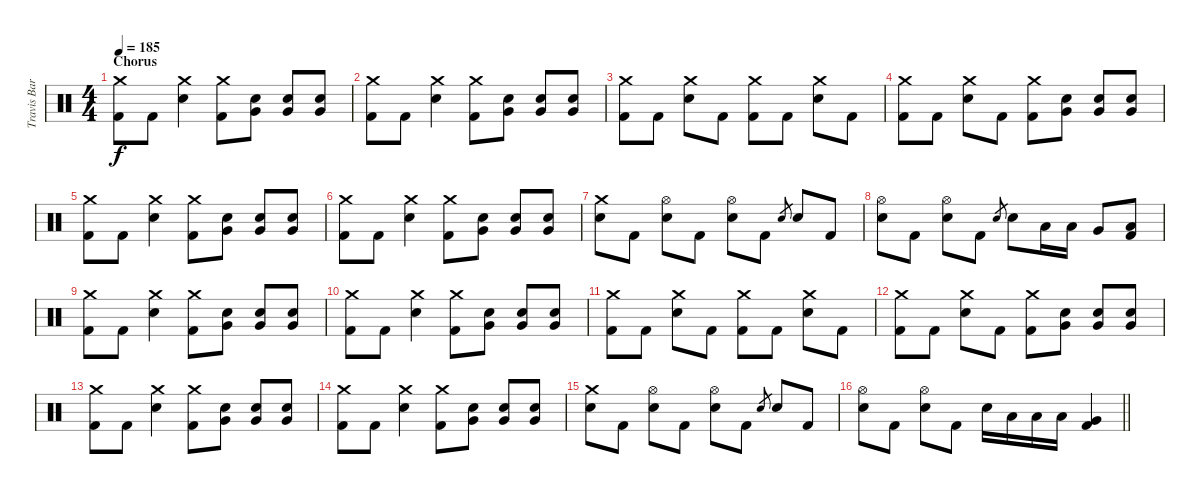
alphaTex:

\track ("Travis Barker - Drums" "Travis Bar") {instrument percussion}
\staff {score}
\articulation defaults
\ts (4 4)
\section ("" "Chorus")
\tempo 185
\clef neutral
\ks c
("Crash medium (hit)" "Kick (hit) 2").8{dy f} "Kick (hit) 2".8 ("Crash medium (hit)" "Electric Snare (hit)").4 ("Crash medium (hit)" "Kick (hit) 2").8 ("Very Low Tom (hit)" "Electric Snare (hit)").8 ("Very Low Tom (hit)" "Electric Snare (hit)").8 ("Very Low Tom (hit)" "Electric Snare (hit)").8 |
("Crash medium (hit)" "Kick (hit) 2").8 "Kick (hit) 2".8 ("Crash medium (hit)" "Electric Snare (hit)").4 ("Crash medium (hit)" "Kick (hit) 2").8 ("Very Low Tom (hit)" "Electric Snare (hit)").8 ("Very Low Tom (hit)" "Electric Snare (hit)").8 ("Very Low Tom (hit)" "Electric Snare (hit)").8 |
("Crash medium (hit)" "Kick (hit) 2").8 "Kick (hit) 2".8 ("Crash medium (hit)" "Electric Snare (hit)").8 "Kick (hit) 2".8 ("Crash medium (hit)" "Kick (hit) 2").8 "Kick (hit) 2".8 ("Crash medium (hit)" "Electric Snare (hit)").8 "Kick (hit) 2".8 |
("Crash medium (hit)" "Kick (hit) 2").8 "Kick (hit) 2".8 ("Crash medium (hit)" "Electric Snare (hit)").8 "Kick (hit) 2".8 ("Crash medium (hit)" "Kick (hit) 2").8 ("Very Low Tom (hit)" "Electric Snare (hit)").8 ("Very Low Tom (hit)" "Electric Snare (hit)").8 ("Very Low Tom (hit)" "Electric Snare (hit)").8 |
("Crash medium (hit)" "Kick (hit) 2").8 "Kick (hit) 2".8 ("Crash medium (hit)" "Electric Snare (hit)").4 ("Crash medium (hit)" "Kick (hit) 2").8 ("Very Low Tom (hit)" "Electric Snare (hit)").8 ("Very Low Tom (hit)" "Electric Snare (hit)").8 ("Very Low Tom (hit)" "Electric Snare (hit)").8 |
("Crash medium (hit)" "Kick (hit) 2").8 "Kick (hit) 2".8 ("Crash medium (hit)" "Electric Snare (hit)").4 ("Crash medium (hit)" "Kick (hit) 2").8 ("Very Low Tom (hit)" "Electric Snare (hit)").8 ("Very Low Tom (hit)" "Electric Snare (hit)").8 ("Very Low Tom (hit)" "Electric Snare (hit)").8 |
("Crash medium (hit)" "Electric Snare (hit)").8 "Kick (hit) 2".8 ("Hi-Hat (open)" "Electric Snare (hit)").8 "Kick (hit) 2".8 ("Hi-Hat (open)" "Electric Snare (hit)").8 "Kick (hit) 2".8 "Electric Snare (hit)".8{gr} "Electric Snare (hit)".8 "Kick (hit) 2".8 |
("Hi-Hat (open)" "Electric Snare (hit)").8 "Kick (hit) 2".8 ("Hi-Hat (open)" "Electric Snare (hit)").8 "Kick (hit) 2".8 "Electric Snare (hit)".8{gr} "Electric Snare (hit)".8 "Low Tom (hit)".16 "Low Tom (hit)".16 "Very Low Tom (hit)".8 ("Low Floor Tom (hit)" "Kick (hit) 2").8 |
("Crash medium (hit)" "Kick (hit) 2").8 "Kick (hit) 2".8 ("Crash medium (hit)" "Electric Snare (hit)").4 ("Crash medium (hit)" "Kick (hit) 2").8 ("Very Low Tom (hit)" "Electric Snare (hit)").8 ("Very Low Tom (hit)" "Electric Snare (hit)").8 ("Very Low Tom (hit)" "Electric Snare (hit)").8 |
("Crash medium (hit)" "Kick (hit) 2").8 "Kick (hit) 2".8 ("Crash medium (hit)" "Electric Snare (hit)").4 ("Crash medium (hit)" "Kick (hit) 2").8 ("Very Low Tom (hit)" "Electric Snare (hit)").8 ("Very Low Tom (hit)" "Electric Snare (hit)").8 ("Very Low Tom (hit)" "Electric Snare (hit)").8 |
("Crash medium (hit)" "Kick (hit) 2").8 "Kick (hit) 2".8 ("Crash medium (hit)" "Electric Snare (hit)").8 "Kick (hit) 2".8 ("Crash medium (hit)" "Kick (hit) 2").8 "Kick (hit) 2".8 ("Crash medium (hit)" "Electric Snare (hit)").8 "Kick (hit) 2".8 |
("Crash medium (hit)" "Kick (hit) 2").8 "Kick (hit) 2".8 ("Crash medium (hit)" "Electric Snare (hit)").8 "Kick (hit) 2".8 ("Crash medium (hit)" "Kick (hit) 2").8 ("Very Low Tom (hit)" "Electric Snare (hit)").8 ("Very Low Tom (hit)" "Electric Snare (hit)").8 ("Very Low Tom (hit)" "Electric Snare (hit)").8 |
("Crash medium (hit)" "Kick (hit) 2").8 "Kick (hit) 2".8 ("Crash medium (hit)" "Electric Snare (hit)").4 ("Crash medium (hit)" "Kick (hit) 2").8 ("Very Low Tom (hit)" "Electric Snare (hit)").8 ("Very Low Tom (hit)" "Electric Snare (hit)").8 ("Very Low Tom (hit)" "Electric Snare (hit)").8 |
("Crash medium (hit)" "Kick (hit) 2").8 "Kick (hit) 2".8 ("Crash medium (hit)" "Electric Snare (hit)").4 ("Crash medium (hit)" "Kick (hit) 2").8 ("Very Low Tom (hit)" "Electric Snare (hit)").8 ("Very Low Tom (hit)" "Electric Snare (hit)").8 ("Very Low Tom (hit)" "Electric Snare (hit)").8 |
("Crash medium (hit)" "Electric Snare (hit)").8 "Kick (hit) 2".8 ("Hi-Hat (open)" "Electric Snare (hit)").8 "Kick (hit) 2".8 ("Hi-Hat (open)" "Electric Snare (hit)").8 "Kick (hit) 2".8 "Electric Snare (hit)".8{gr} "Electric Snare (hit)".8 "Kick (hit) 2".8 |
\barLineRight lightlight
("Hi-Hat (open)" "Electric Snare (hit)").8 "Kick (hit) 2".8 ("Hi-Hat (open)" "Electric Snare (hit)").8 "Kick (hit) 2".8 "Electric Snare (hit)".16 "Low Tom (hit)".16 "Low Tom (hit)".16 "Low Tom (hit)".16 ("Very Low Tom (hit)" "Kick (hit) 2").4
